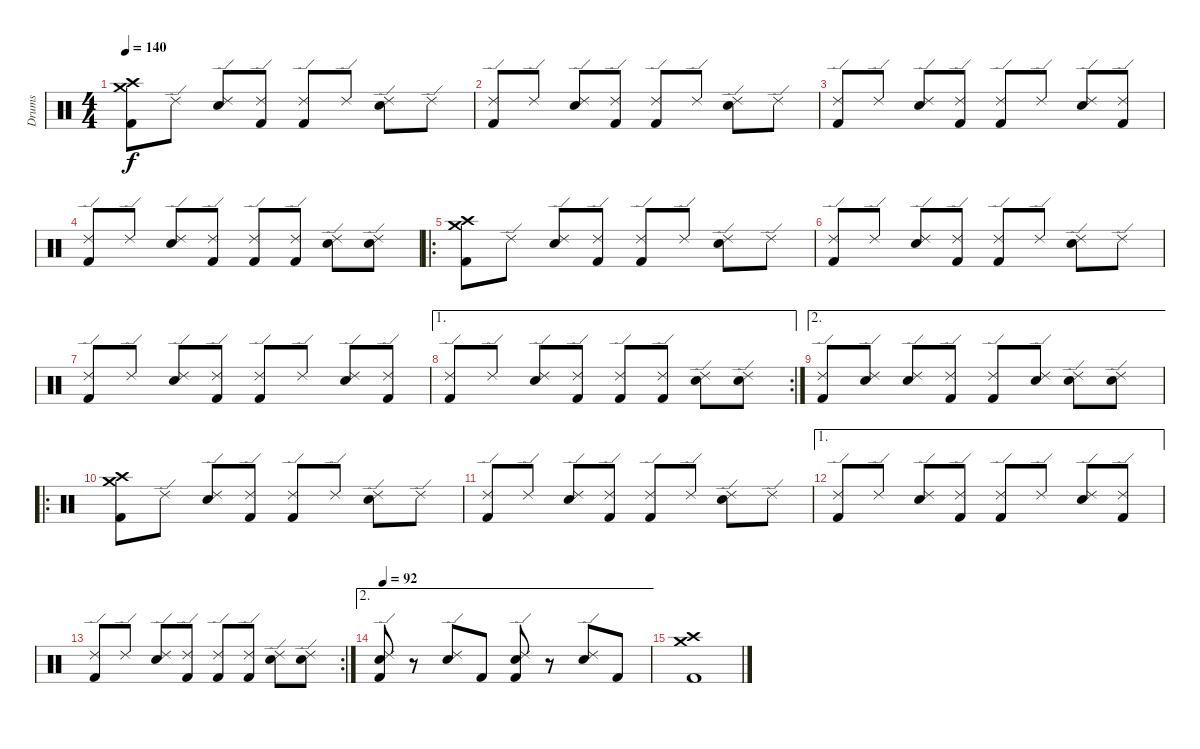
\track ("Drums" "Drums") {instrument percussion}
\staff {score}
\articulation defaults
\ts (4 4)
\tempo 140
\clef neutral
\ks c
("Crash high (hit)" "Crash medium (hit)" "Kick (hit) 2").8{dy f} "Ride (edge) 2".8 ("Ride (edge) 2" "Snare (hit) 2").8 ("Ride (edge) 2" "Kick (hit) 2").8 ("Ride (edge) 2" "Kick (hit) 2").8 "Ride (edge) 2".8 ("Ride (edge) 2" "Snare (hit) 2").8 "Ride (edge) 2".8 |
("Ride (edge) 2" "Kick (hit) 2").8 "Ride (edge) 2".8 ("Ride (edge) 2" "Snare (hit) 2").8 ("Ride (edge) 2" "Kick (hit) 2").8 ("Ride (edge) 2" "Kick (hit) 2").8 "Ride (edge) 2".8 ("Ride (edge) 2" "Snare (hit) 2").8 "Ride (edge) 2".8 |
("Ride (edge) 2" "Kick (hit) 2").8 "Ride (edge) 2".8 ("Ride (edge) 2" "Snare (hit) 2").8 ("Ride (edge) 2" "Kick (hit) 2").8 ("Ride (edge) 2" "Kick (hit) 2").8 "Ride (edge) 2".8 ("Ride (edge) 2" "Snare (hit) 2").8 ("Ride (edge) 2" "Kick (hit) 2").8 |
("Ride (edge) 2" "Kick (hit) 2").8 "Ride (edge) 2".8 ("Ride (edge) 2" "Snare (hit) 2").8 ("Ride (edge) 2" "Kick (hit) 2").8 ("Ride (edge) 2" "Kick (hit) 2").8 ("Ride (edge) 2" "Kick (hit) 2").8 ("Ride (edge) 2" "Snare (hit) 2").8 ("Ride (edge) 2" "Snare (hit) 2").8 |
\ro
("Crash high (hit)" "Crash medium (hit)" "Kick (hit) 2").8 "Ride (edge) 2".8 ("Ride (edge) 2" "Snare (hit) 2").8 ("Ride (edge) 2" "Kick (hit) 2").8 ("Ride (edge) 2" "Kick (hit) 2").8 "Ride (edge) 2".8 ("Ride (edge) 2" "Snare (hit) 2").8 "Ride (edge) 2".8 |
("Ride (edge) 2" "Kick (hit) 2").8 "Ride (edge) 2".8 ("Ride (edge) 2" "Snare (hit) 2").8 ("Ride (edge) 2" "Kick (hit) 2").8 ("Ride (edge) 2" "Kick (hit) 2").8 "Ride (edge) 2".8 ("Ride (edge) 2" "Snare (hit) 2").8 "Ride (edge) 2".8 |
("Ride (edge) 2" "Kick (hit) 2").8 "Ride (edge) 2".8 ("Ride (edge) 2" "Snare (hit) 2").8 ("Ride (edge) 2" "Kick (hit) 2").8 ("Ride (edge) 2" "Kick (hit) 2").8 "Ride (edge) 2".8 ("Ride (edge) 2" "Snare (hit) 2").8 ("Ride (edge) 2" "Kick (hit) 2").8 |
\ae 1
\rc 2
("Ride (edge) 2" "Kick (hit) 2").8 "Ride (edge) 2".8 ("Ride (edge) 2" "Snare (hit) 2").8 ("Ride (edge) 2" "Kick (hit) 2").8 ("Ride (edge) 2" "Kick (hit) 2").8 ("Ride (edge) 2" "Kick (hit) 2").8 ("Ride (edge) 2" "Snare (hit) 2").8 ("Ride (edge) 2" "Snare (hit) 2").8 |
\ae 2
("Ride (edge) 2" "Kick (hit) 2").8 ("Ride (edge) 2" "Snare (hit) 2").8 ("Ride (edge) 2" "Snare (hit) 2").8 ("Ride (edge) 2" "Kick (hit) 2").8 ("Ride (edge) 2" "Kick (hit) 2").8 ("Ride (edge) 2" "Snare (hit) 2").8 ("Ride (edge) 2" "Snare (hit) 2").8 ("Ride (edge) 2" "Snare (hit) 2").8 |
\ro
("Crash high (hit)" "Crash medium (hit)" "Kick (hit) 2").8 "Ride (edge) 2".8 ("Ride (edge) 2" "Snare (hit) 2").8 ("Ride (edge) 2" "Kick (hit) 2").8 ("Ride (edge) 2" "Kick (hit) 2").8 "Ride (edge) 2".8 ("Ride (edge) 2" "Snare (hit) 2").8 "Ride (edge) 2".8 |
("Ride (edge) 2" "Kick (hit) 2").8 "Ride (edge) 2".8 ("Ride (edge) 2" "Snare (hit) 2").8 ("Ride (edge) 2" "Kick (hit) 2").8 ("Ride (edge) 2" "Kick (hit) 2").8 "Ride (edge) 2".8 ("Ride (edge) 2" "Snare (hit) 2").8 "Ride (edge) 2".8 |
\ae 1
("Ride (edge) 2" "Kick (hit) 2").8 "Ride (edge) 2".8 ("Ride (edge) 2" "Snare (hit) 2").8 ("Ride (edge) 2" "Kick (hit) 2").8 ("Ride (edge) 2" "Kick (hit) 2").8 "Ride (edge) 2".8 ("Ride (edge) 2" "Snare (hit) 2").8 ("Ride (edge) 2" "Kick (hit) 2").8 |
\rc 2
("Ride (edge) 2" "Kick (hit) 2").8 "Ride (edge) 2".8 ("Ride (edge) 2" "Snare (hit) 2").8 ("Ride (edge) 2" "Kick (hit) 2").8 ("Ride (edge) 2" "Kick (hit) 2").8 ("Ride (edge) 2" "Kick (hit) 2").8 ("Ride (edge) 2" "Snare (hit) 2").8 ("Ride (edge) 2" "Snare (hit) 2").8 |
\ae 2
\tempo 92
("Ride (edge) 2" "Snare (hit) 2" "Kick (hit) 2").8 r.8 ("Ride (edge) 2" "Snare (hit) 2").8 "Kick (hit) 2".8 ("Ride (edge) 2" "Snare (hit) 2" "Kick (hit) 2").8 r.8 ("Ride (edge) 2" "Snare (hit) 2").8 "Kick (hit) 2".8 |
("Crash high (hit)" "Crash medium (hit)" "Kick (hit) 2").1
